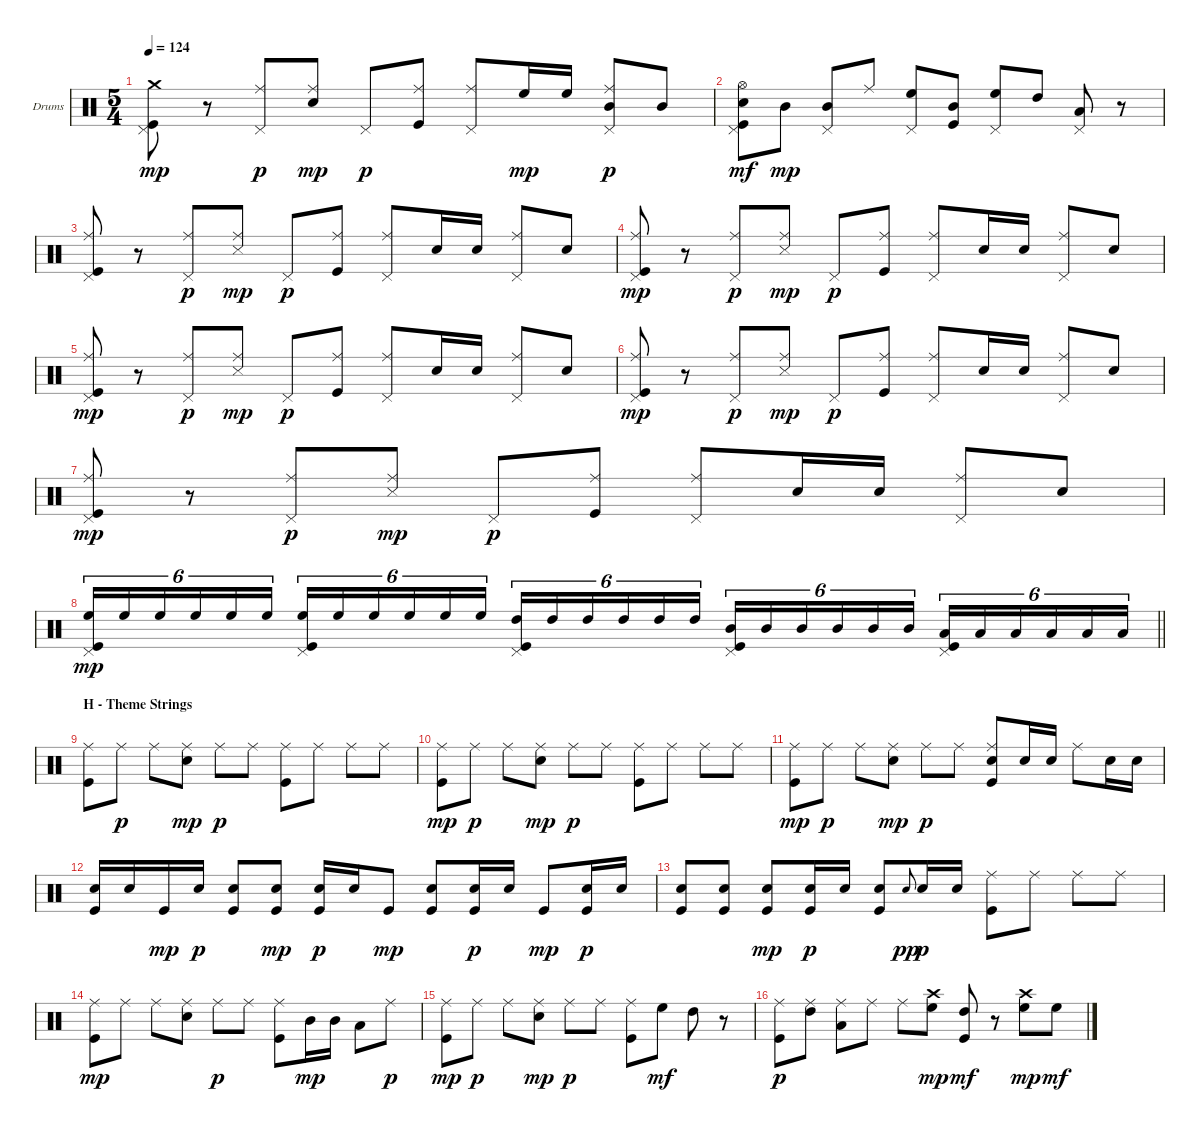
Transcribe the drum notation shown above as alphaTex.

\bracketExtendMode groupsimilarinstruments
\firstSystemTrackNameOrientation horizontal
\otherSystemsTrackNameOrientation horizontal
\track ("Drumkit" "Drums") {instrument percussion}
\staff {score}
\articulation defaults
\ts (5 4)
\tempo 124
\clef neutral
\ks aminor
("Crash medium (hit)" "Pedal Hi-Hat (hit)" "Kick (hit)").8{dy mp} r.8 ("Ride (middle)" "Pedal Hi-Hat (hit)").8{dy p} ("Ride (middle)" "Snare (hit) 2").8{dy mp} "Pedal Hi-Hat (hit)".8{dy p} ("Ride (middle)" "Kick (hit)").8 ("Ride (middle)" "Pedal Hi-Hat (hit)").8 "High Floor Tom (hit)".16{dy mp} "High Floor Tom (hit)".16 ("Ride (middle)" "Mid Tom (hit)" "Pedal Hi-Hat (hit)").8{dy p} "Mid Tom (hit)".8 |
("Hi-Hat (open)" "Snare (hit) 2" "Pedal Hi-Hat (hit)" "Kick (hit)").8{dy mf} "Mid Tom (hit)".8{dy mp} ("Mid Tom (hit)" "Pedal Hi-Hat (hit)").8 "Ride (middle)".8 ("High Floor Tom (hit)" "Pedal Hi-Hat (hit)").8 ("Mid Tom (hit)" "Kick (hit)").8 ("High Floor Tom (hit)" "Pedal Hi-Hat (hit)").8 "High Tom (hit)".8 ("Low Tom (hit)" "Pedal Hi-Hat (hit)").8 r.8 |
("Ride (middle)" "Pedal Hi-Hat (hit)" "Kick (hit)").8 r.8 ("Ride (middle)" "Pedal Hi-Hat (hit)").8{dy p} ("Ride (middle)" "Snare (side stick) 3").8{dy mp} "Pedal Hi-Hat (hit)".8{dy p} ("Ride (middle)" "Kick (hit)").8 ("Ride (middle)" "Pedal Hi-Hat (hit)").8 "Snare (hit) 2".16 "Snare (hit) 2".16 ("Ride (middle)" "Pedal Hi-Hat (hit)").8 "Snare (hit) 2".8 |
("Ride (middle)" "Pedal Hi-Hat (hit)" "Kick (hit)").8{dy mp} r.8 ("Ride (middle)" "Pedal Hi-Hat (hit)").8{dy p} ("Ride (middle)" "Snare (side stick) 3").8{dy mp} "Pedal Hi-Hat (hit)".8{dy p} ("Ride (middle)" "Kick (hit)").8 ("Ride (middle)" "Pedal Hi-Hat (hit)").8 "Snare (hit) 2".16 "Snare (hit) 2".16 ("Ride (middle)" "Pedal Hi-Hat (hit)").8 "Snare (hit) 2".8 |
("Ride (middle)" "Pedal Hi-Hat (hit)" "Kick (hit)").8{dy mp} r.8 ("Ride (middle)" "Pedal Hi-Hat (hit)").8{dy p} ("Ride (middle)" "Snare (side stick) 3").8{dy mp} "Pedal Hi-Hat (hit)".8{dy p} ("Ride (middle)" "Kick (hit)").8 ("Ride (middle)" "Pedal Hi-Hat (hit)").8 "Snare (hit) 2".16 "Snare (hit) 2".16 ("Ride (middle)" "Pedal Hi-Hat (hit)").8 "Snare (hit) 2".8 |
("Ride (middle)" "Pedal Hi-Hat (hit)" "Kick (hit)").8{dy mp} r.8 ("Ride (middle)" "Pedal Hi-Hat (hit)").8{dy p} ("Ride (middle)" "Snare (side stick) 3").8{dy mp} "Pedal Hi-Hat (hit)".8{dy p} ("Ride (middle)" "Kick (hit)").8 ("Ride (middle)" "Pedal Hi-Hat (hit)").8 "Snare (hit) 2".16 "Snare (hit) 2".16 ("Ride (middle)" "Pedal Hi-Hat (hit)").8 "Snare (hit) 2".8 |
("Ride (middle)" "Pedal Hi-Hat (hit)" "Kick (hit)").8{dy mp} r.8 ("Ride (middle)" "Pedal Hi-Hat (hit)").8{dy p} ("Ride (middle)" "Snare (side stick) 3").8{dy mp} "Pedal Hi-Hat (hit)".8{dy p} ("Ride (middle)" "Kick (hit)").8 ("Ride (middle)" "Pedal Hi-Hat (hit)").8 "Snare (hit) 2".16 "Snare (hit) 2".16 ("Ride (middle)" "Pedal Hi-Hat (hit)").8 "Snare (hit) 2".8 |
\barLineRight lightlight
("High Floor Tom (hit)" "Pedal Hi-Hat (hit)" "Kick (hit)").16{tu (6 4) dy mp} "High Floor Tom (hit)".16{tu (6 4)} "High Floor Tom (hit)".16{tu (6 4)} "High Floor Tom (hit)".16{tu (6 4)} "High Floor Tom (hit)".16{tu (6 4)} "High Floor Tom (hit)".16{tu (6 4)} ("High Floor Tom (hit)" "Pedal Hi-Hat (hit)" "Kick (hit)").16{tu (6 4)} "High Floor Tom (hit)".16{tu (6 4)} "High Floor Tom (hit)".16{tu (6 4)} "High Floor Tom (hit)".16{tu (6 4)} "High Floor Tom (hit)".16{tu (6 4)} "High Floor Tom (hit)".16{tu (6 4)} ("High Tom (hit)" "Pedal Hi-Hat (hit)" "Kick (hit)").16{tu (6 4)} "High Tom (hit)".16{tu (6 4)} "High Tom (hit)".16{tu (6 4)} "High Tom (hit)".16{tu (6 4)} "High Tom (hit)".16{tu (6 4)} "High Tom (hit)".16{tu (6 4)} ("Mid Tom (hit)" "Pedal Hi-Hat (hit)" "Kick (hit)").16{tu (6 4)} "Mid Tom (hit)".16{tu (6 4)} "Mid Tom (hit)".16{tu (6 4)} "Mid Tom (hit)".16{tu (6 4)} "Mid Tom (hit)".16{tu (6 4)} "Mid Tom (hit)".16{tu (6 4)} ("Low Tom (hit)" "Pedal Hi-Hat (hit)" "Kick (hit)").16{tu (6 4)} "Low Tom (hit)".16{tu (6 4)} "Low Tom (hit)".16{tu (6 4)} "Low Tom (hit)".16{tu (6 4)} "Low Tom (hit)".16{tu (6 4)} "Low Tom (hit)".16{tu (6 4)} |
\section ("" "H - Theme Strings")
("Ride (middle)" "Kick (hit)").8 "Ride (middle)".8{dy p} "Ride (middle)".8 ("Ride (middle)" "Snare (hit) 2").8{dy mp} "Ride (middle)".8{dy p} "Ride (middle)".8 ("Ride (middle)" "Kick (hit)").8 "Ride (middle)".8 "Ride (middle)".8 "Ride (middle)".8 |
("Ride (middle)" "Kick (hit)").8{dy mp} "Ride (middle)".8{dy p} "Ride (middle)".8 ("Ride (middle)" "Snare (hit) 2").8{dy mp} "Ride (middle)".8{dy p} "Ride (middle)".8 ("Ride (middle)" "Kick (hit)").8 "Ride (middle)".8 "Ride (middle)".8 "Ride (middle)".8 |
("Ride (middle)" "Kick (hit)").8{dy mp} "Ride (middle)".8{dy p} "Ride (middle)".8 ("Ride (middle)" "Snare (hit) 2").8{dy mp} "Ride (middle)".8{dy p} "Ride (middle)".8 ("Ride (middle)" "Snare (hit) 2" "Kick (hit)").8 "Snare (hit) 2".16 "Snare (hit) 2".16 "Ride (middle)".8 "Snare (hit) 2".16 "Snare (hit) 2".16 |
("Snare (hit) 2" "Kick (hit)").16 "Snare (hit) 2".16 "Kick (hit)".16{dy mp} "Snare (hit) 2".16{dy p} ("Snare (hit) 2" "Kick (hit)").8 ("Snare (hit) 2" "Kick (hit)").8{dy mp} ("Snare (hit) 2" "Kick (hit)").16{dy p} "Snare (hit) 2".16 "Kick (hit)".8{dy mp} ("Snare (hit) 2" "Kick (hit)").8 ("Snare (hit) 2" "Kick (hit)").16{dy p} "Snare (hit) 2".16 "Kick (hit)".8{dy mp} ("Snare (hit) 2" "Kick (hit)").16{dy p} "Snare (hit) 2".16 |
("Snare (hit) 2" "Kick (hit)").8 ("Snare (hit) 2" "Kick (hit)").8 ("Snare (hit) 2" "Kick (hit)").8{dy mp} ("Snare (hit) 2" "Kick (hit)").16{dy p} "Snare (hit) 2".16 ("Snare (hit) 2" "Kick (hit)").8 "Snare (hit) 2".8{gr onbeat dy pp} "Snare (hit) 2".16{dy p} "Snare (hit) 2".16 ("Ride (middle)" "Kick (hit)").8 "Ride (middle)".8 "Ride (middle)".8 "Ride (middle)".8 |
("Ride (middle)" "Kick (hit)").8{dy mp} "Ride (middle)".8 "Ride (middle)".8 ("Ride (middle)" "Snare (hit) 2").8 "Ride (middle)".8{dy p} "Ride (middle)".8 ("Ride (middle)" "Kick (hit)").8 "Mid Tom (hit)".16{dy mp} "Mid Tom (hit)".16 "Low Tom (hit)".8 "Ride (middle)".8{dy p} |
("Ride (middle)" "Kick (hit)").8{dy mp} "Ride (middle)".8{dy p} "Ride (middle)".8 ("Ride (middle)" "Snare (hit) 2").8{dy mp} "Ride (middle)".8{dy p} "Ride (middle)".8 ("Ride (middle)" "Kick (hit)").8 "High Floor Tom (hit)".8{dy mf} "High Tom (hit)".8 r.8 |
("Ride (middle)" "Kick (hit)").8{dy p} ("Ride (middle)" "High Tom (hit)").8 ("Ride (middle)" "Low Tom (hit)").8 "Ride (middle)".8 "Ride (middle)".8 ("Crash high (hit)" "High Floor Tom (hit)").8{dy mp} ("High Tom (hit)" "Kick (hit)").8{dy mf} r.8 ("Crash high (hit)" "High Floor Tom (hit)").8{dy mp} "High Floor Tom (hit)".8{dy mf}
